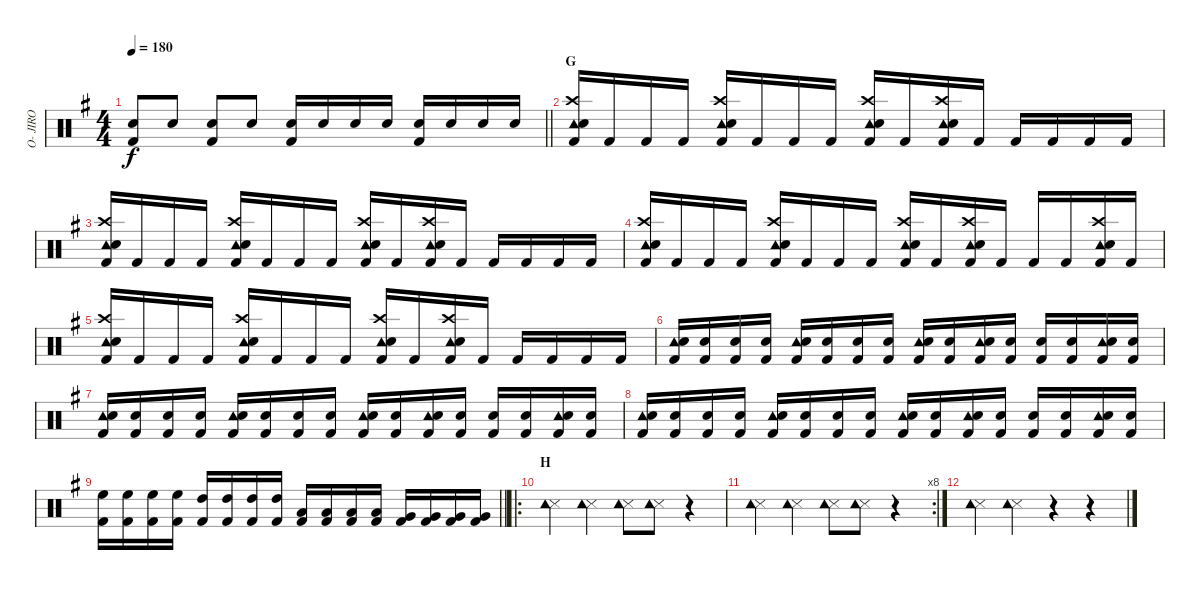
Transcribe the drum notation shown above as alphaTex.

\track ("O- JIRO" "O- JIRO") {instrument percussion}
\staff {score}
\articulation defaults
\ts (4 4)
\tempo 180
\clef neutral
\barLineRight lightlight
\ks g
("Snare (hit) 2" "Kick (hit) 2").8{dy f} "Snare (hit) 2".8 ("Kick (hit) 2" "Snare (hit) 2").8 "Snare (hit) 2".8 ("Snare (hit) 2" "Kick (hit) 2").16 "Snare (hit) 2".16 "Snare (hit) 2".16 "Snare (hit) 2".16 ("Snare (hit) 2" "Kick (hit) 2").16 "Snare (hit) 2".16 "Snare (hit) 2".16 "Snare (hit) 2".16 |
\section ("" "G")
("Crash high (hit)" "Tambourine (hit)" "Snare (hit) 2" "Kick (hit) 2").16 "Kick (hit) 2".16 "Kick (hit) 2".16 "Kick (hit) 2".16 ("Crash high (hit)" "Tambourine (hit)" "Snare (hit) 2" "Kick (hit) 2").16 "Kick (hit) 2".16 "Kick (hit) 2".16 "Kick (hit) 2".16 ("Crash high (hit)" "Tambourine (hit)" "Snare (hit) 2" "Kick (hit) 2").16 "Kick (hit) 2".16 ("Crash high (hit)" "Tambourine (hit)" "Snare (hit) 2" "Kick (hit) 2").16 "Kick (hit) 2".16 "Kick (hit) 2".16 "Kick (hit) 2".16 "Kick (hit) 2".16 "Kick (hit) 2".16 |
("Crash high (hit)" "Tambourine (hit)" "Snare (hit) 2" "Kick (hit) 2").16 "Kick (hit) 2".16 "Kick (hit) 2".16 "Kick (hit) 2".16 ("Crash high (hit)" "Tambourine (hit)" "Snare (hit) 2" "Kick (hit) 2").16 "Kick (hit) 2".16 "Kick (hit) 2".16 "Kick (hit) 2".16 ("Crash high (hit)" "Tambourine (hit)" "Snare (hit) 2" "Kick (hit) 2").16 "Kick (hit) 2".16 ("Crash high (hit)" "Tambourine (hit)" "Snare (hit) 2" "Kick (hit) 2").16 "Kick (hit) 2".16 "Kick (hit) 2".16 "Kick (hit) 2".16 "Kick (hit) 2".16 "Kick (hit) 2".16 |
("Crash high (hit)" "Tambourine (hit)" "Snare (hit) 2" "Kick (hit) 2").16 "Kick (hit) 2".16 "Kick (hit) 2".16 "Kick (hit) 2".16 ("Crash high (hit)" "Tambourine (hit)" "Snare (hit) 2" "Kick (hit) 2").16 "Kick (hit) 2".16 "Kick (hit) 2".16 "Kick (hit) 2".16 ("Crash high (hit)" "Tambourine (hit)" "Snare (hit) 2" "Kick (hit) 2").16 "Kick (hit) 2".16 ("Crash high (hit)" "Tambourine (hit)" "Snare (hit) 2" "Kick (hit) 2").16 "Kick (hit) 2".16 "Kick (hit) 2".16 "Kick (hit) 2".16 ("Crash high (hit)" "Tambourine (hit)" "Snare (hit) 2" "Kick (hit) 2").16 "Kick (hit) 2".16 |
("Crash high (hit)" "Tambourine (hit)" "Snare (hit) 2" "Kick (hit) 2").16 "Kick (hit) 2".16 "Kick (hit) 2".16 "Kick (hit) 2".16 ("Crash high (hit)" "Tambourine (hit)" "Snare (hit) 2" "Kick (hit) 2").16 "Kick (hit) 2".16 "Kick (hit) 2".16 "Kick (hit) 2".16 ("Crash high (hit)" "Tambourine (hit)" "Snare (hit) 2" "Kick (hit) 2").16 "Kick (hit) 2".16 ("Crash high (hit)" "Tambourine (hit)" "Snare (hit) 2" "Kick (hit) 2").16 "Kick (hit) 2".16 "Kick (hit) 2".16 "Kick (hit) 2".16 "Kick (hit) 2".16 "Kick (hit) 2".16 |
("Tambourine (hit)" "Snare (hit) 2" "Kick (hit) 2").16 ("Snare (hit) 2" "Kick (hit) 2").16 ("Snare (hit) 2" "Kick (hit) 2").16 ("Snare (hit) 2" "Kick (hit) 2").16 ("Tambourine (hit)" "Snare (hit) 2" "Kick (hit) 2").16 ("Snare (hit) 2" "Kick (hit) 2").16 ("Snare (hit) 2" "Kick (hit) 2").16 ("Snare (hit) 2" "Kick (hit) 2").16 ("Tambourine (hit)" "Snare (hit) 2" "Kick (hit) 2").16 ("Snare (hit) 2" "Kick (hit) 2").16 ("Tambourine (hit)" "Snare (hit) 2" "Kick (hit) 2").16 ("Snare (hit) 2" "Kick (hit) 2").16 ("Snare (hit) 2" "Kick (hit) 2").16 ("Snare (hit) 2" "Kick (hit) 2").16 ("Tambourine (hit)" "Snare (hit) 2" "Kick (hit) 2").16 ("Snare (hit) 2" "Kick (hit) 2").16 |
("Tambourine (hit)" "Snare (hit) 2" "Kick (hit) 2").16 ("Snare (hit) 2" "Kick (hit) 2").16 ("Snare (hit) 2" "Kick (hit) 2").16 ("Snare (hit) 2" "Kick (hit) 2").16 ("Tambourine (hit)" "Snare (hit) 2" "Kick (hit) 2").16 ("Snare (hit) 2" "Kick (hit) 2").16 ("Snare (hit) 2" "Kick (hit) 2").16 ("Snare (hit) 2" "Kick (hit) 2").16 ("Tambourine (hit)" "Snare (hit) 2" "Kick (hit) 2").16 ("Snare (hit) 2" "Kick (hit) 2").16 ("Tambourine (hit)" "Snare (hit) 2" "Kick (hit) 2").16 ("Snare (hit) 2" "Kick (hit) 2").16 ("Snare (hit) 2" "Kick (hit) 2").16 ("Snare (hit) 2" "Kick (hit) 2").16 ("Tambourine (hit)" "Snare (hit) 2" "Kick (hit) 2").16 ("Snare (hit) 2" "Kick (hit) 2").16 |
("Tambourine (hit)" "Snare (hit) 2" "Kick (hit) 2").16 ("Snare (hit) 2" "Kick (hit) 2").16 ("Snare (hit) 2" "Kick (hit) 2").16 ("Snare (hit) 2" "Kick (hit) 2").16 ("Tambourine (hit)" "Snare (hit) 2" "Kick (hit) 2").16 ("Snare (hit) 2" "Kick (hit) 2").16 ("Snare (hit) 2" "Kick (hit) 2").16 ("Snare (hit) 2" "Kick (hit) 2").16 ("Tambourine (hit)" "Snare (hit) 2" "Kick (hit) 2").16 ("Snare (hit) 2" "Kick (hit) 2").16 ("Tambourine (hit)" "Snare (hit) 2" "Kick (hit) 2").16 ("Snare (hit) 2" "Kick (hit) 2").16 ("Snare (hit) 2" "Kick (hit) 2").16 ("Snare (hit) 2" "Kick (hit) 2").16 ("Tambourine (hit)" "Snare (hit) 2" "Kick (hit) 2").16 ("Snare (hit) 2" "Kick (hit) 2").16 |
\barLineRight lightlight
("High Floor Tom (hit)" "Kick (hit) 2").16 ("High Floor Tom (hit)" "Kick (hit) 2").16 ("High Floor Tom (hit)" "Kick (hit) 2").16 ("High Floor Tom (hit)" "Kick (hit) 2").16 ("High Tom (hit)" "Kick (hit) 2").16 ("High Tom (hit)" "Kick (hit) 2").16 ("High Tom (hit)" "Kick (hit) 2").16 ("High Tom (hit)" "Kick (hit) 2").16 ("Low Tom (hit)" "Kick (hit) 2").16 ("Low Tom (hit)" "Kick (hit) 2").16 ("Low Tom (hit)" "Kick (hit) 2").16 ("Low Tom (hit)" "Kick (hit) 2").16 ("Very Low Tom (hit)" "Kick (hit) 2").16 ("Very Low Tom (hit)" "Kick (hit) 2").16 ("Very Low Tom (hit)" "Kick (hit) 2").16 ("Very Low Tom (hit)" "Kick (hit) 2").16 |
\ro
\section ("" "H")
("Snare (side stick) 3" "Tambourine (hit)").4 ("Snare (side stick) 3" "Tambourine (hit)").4 ("Snare (side stick) 3" "Tambourine (hit)").8 ("Snare (side stick) 3" "Tambourine (hit)").8 r.4 |
\rc 8
("Snare (side stick) 3" "Tambourine (hit)").4 ("Snare (side stick) 3" "Tambourine (hit)").4 ("Snare (side stick) 3" "Tambourine (hit)").8 ("Snare (side stick) 3" "Tambourine (hit)").8 r.4 |
("Snare (side stick) 3" "Tambourine (hit)").4 ("Snare (side stick) 3" "Tambourine (hit)").4 r.4 r.4
